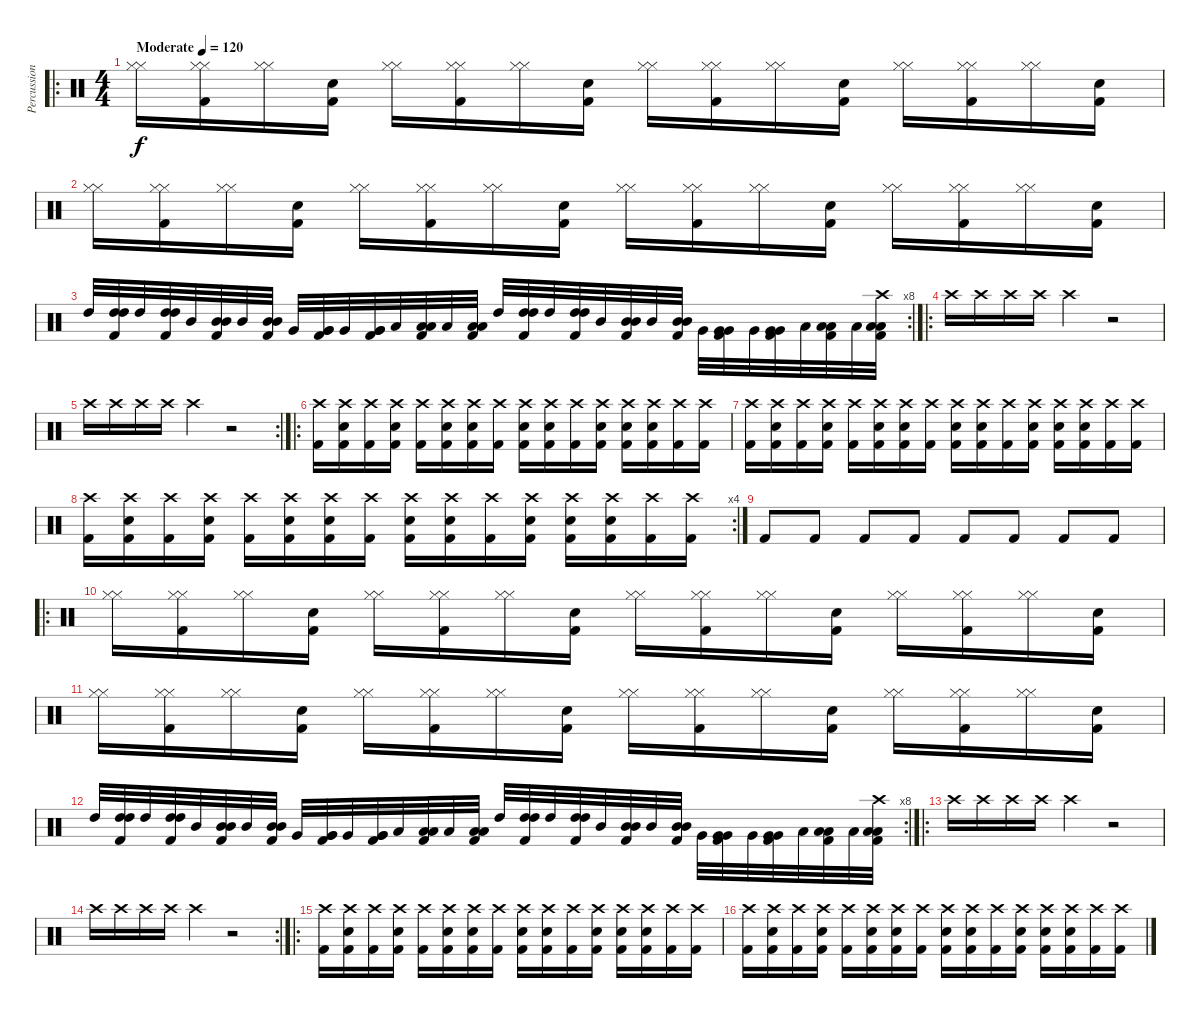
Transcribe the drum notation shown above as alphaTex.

\track ("Percussion" "Percussion") {instrument percussion}
\staff {score}
\articulation defaults
\ro
\ts (4 4)
\tempo (120 "Moderate")
\clef neutral
\ks c
("Hi-Hat (closed)" "Hi-Hat (closed)").16{dy f} ("Hi-Hat (closed)" "Hi-Hat (closed)" "Kick (hit) 2").16 ("Hi-Hat (closed)" "Hi-Hat (closed)").16 ("Snare (hit) 2" "Kick (hit) 2").16 ("Hi-Hat (closed)" "Hi-Hat (closed)").16 ("Hi-Hat (closed)" "Hi-Hat (closed)" "Kick (hit) 2").16 ("Hi-Hat (closed)" "Hi-Hat (closed)").16 ("Snare (hit) 2" "Kick (hit) 2").16 ("Hi-Hat (closed)" "Hi-Hat (closed)").16 ("Hi-Hat (closed)" "Hi-Hat (closed)" "Kick (hit) 2").16 ("Hi-Hat (closed)" "Hi-Hat (closed)").16 ("Snare (hit) 2" "Kick (hit) 2").16 ("Hi-Hat (closed)" "Hi-Hat (closed)").16 ("Hi-Hat (closed)" "Hi-Hat (closed)" "Kick (hit) 2").16 ("Hi-Hat (closed)" "Hi-Hat (closed)").16 ("Snare (hit) 2" "Kick (hit) 2").16 |
("Hi-Hat (closed)" "Hi-Hat (closed)").16 ("Hi-Hat (closed)" "Hi-Hat (closed)" "Kick (hit) 2").16 ("Hi-Hat (closed)" "Hi-Hat (closed)").16 ("Snare (hit) 2" "Kick (hit) 2").16 ("Hi-Hat (closed)" "Hi-Hat (closed)").16 ("Hi-Hat (closed)" "Hi-Hat (closed)" "Kick (hit) 2").16 ("Hi-Hat (closed)" "Hi-Hat (closed)").16 ("Snare (hit) 2" "Kick (hit) 2").16 ("Hi-Hat (closed)" "Hi-Hat (closed)").16 ("Hi-Hat (closed)" "Hi-Hat (closed)" "Kick (hit) 2").16 ("Hi-Hat (closed)" "Hi-Hat (closed)").16 ("Snare (hit) 2" "Kick (hit) 2").16 ("Hi-Hat (closed)" "Hi-Hat (closed)").16 ("Hi-Hat (closed)" "Hi-Hat (closed)" "Kick (hit) 2").16 ("Hi-Hat (closed)" "Hi-Hat (closed)").16 ("Snare (hit) 2" "Kick (hit) 2").16 |
\rc 8 "High Tom (hit)".32
("High Tom (hit)" "High Tom (hit)" "Kick (hit) 2").32 "High Tom (hit)".32 ("High Tom (hit)" "High Tom (hit)" "Kick (hit) 2").32 "Mid Tom (hit)".32 ("Mid Tom (hit)" "Mid Tom (hit)" "Kick (hit) 2").32 "Mid Tom (hit)".32 ("Mid Tom (hit)" "Mid Tom (hit)" "Kick (hit) 2").32 "Very Low Tom (hit)".32 ("Very Low Tom (hit)" "Very Low Tom (hit)" "Kick (hit) 2").32 "Very Low Tom (hit)".32 ("Very Low Tom (hit)" "Very Low Tom (hit)" "Kick (hit) 2").32 "Low Floor Tom (hit)".32 ("Low Floor Tom (hit)" "Low Floor Tom (hit)" "Kick (hit) 2").32 "Low Floor Tom (hit)".32 ("Low Floor Tom (hit)" "Low Floor Tom (hit)" "Kick (hit) 2").32 "High Tom (hit)".32 ("High Tom (hit)" "High Tom (hit)" "Kick (hit) 2").32 "High Tom (hit)".32 ("High Tom (hit)" "High Tom (hit)" "Kick (hit) 2").32 "Mid Tom (hit)".32 ("Mid Tom (hit)" "Mid Tom (hit)" "Kick (hit) 2").32 "Mid Tom (hit)".32 ("Mid Tom (hit)" "Mid Tom (hit)" "Kick (hit) 2").32 "Very Low Tom (hit)".32 ("Very Low Tom (hit)" "Very Low Tom (hit)" "Kick (hit) 2").32 "Very Low Tom (hit)".32 ("Very Low Tom (hit)" "Very Low Tom (hit)" "Kick (hit) 2").32 "Low Floor Tom (hit)".32 ("Low Floor Tom (hit)" "Low Floor Tom (hit)" "Kick (hit) 2").32 "Low Floor Tom (hit)".32 ("Crash high (hit)" "Low Floor Tom (hit)" "Low Floor Tom (hit)" "Kick (hit) 2").32 |
\ro "Crash high (hit)".16 "Crash high (hit)".16 "Crash high (hit)".16 "Crash high (hit)".16 "Crash high (hit)".4
r.2 |
\rc 2 "Crash high (hit)".16 "Crash high (hit)".16 "Crash high (hit)".16 "Crash high (hit)".16 "Crash high (hit)".4
r.2 |
\ro
("Crash high (hit)" "Kick (hit) 2").16 ("Crash high (hit)" "Snare (hit) 2" "Kick (hit) 2").16 ("Crash high (hit)" "Kick (hit) 2").16 ("Crash high (hit)" "Snare (hit) 2" "Kick (hit) 2").16 ("Crash high (hit)" "Kick (hit) 2").16 ("Crash high (hit)" "Snare (hit) 2" "Kick (hit) 2").16 ("Crash high (hit)" "Snare (hit) 2" "Kick (hit) 2").16 ("Crash high (hit)" "Kick (hit) 2").16 ("Crash high (hit)" "Snare (hit) 2" "Kick (hit) 2").16 ("Crash high (hit)" "Snare (hit) 2" "Kick (hit) 2").16 ("Crash high (hit)" "Kick (hit) 2").16 ("Crash high (hit)" "Snare (hit) 2" "Kick (hit) 2").16 ("Crash high (hit)" "Snare (hit) 2" "Kick (hit) 2").16 ("Crash high (hit)" "Snare (hit) 2" "Kick (hit) 2").16 ("Crash high (hit)" "Kick (hit) 2").16 ("Crash high (hit)" "Kick (hit) 2").16 |
("Crash high (hit)" "Kick (hit) 2").16 ("Crash high (hit)" "Snare (hit) 2" "Kick (hit) 2").16 ("Crash high (hit)" "Kick (hit) 2").16 ("Crash high (hit)" "Snare (hit) 2" "Kick (hit) 2").16 ("Crash high (hit)" "Kick (hit) 2").16 ("Crash high (hit)" "Snare (hit) 2" "Kick (hit) 2").16 ("Crash high (hit)" "Snare (hit) 2" "Kick (hit) 2").16 ("Crash high (hit)" "Kick (hit) 2").16 ("Crash high (hit)" "Snare (hit) 2" "Kick (hit) 2").16 ("Crash high (hit)" "Snare (hit) 2" "Kick (hit) 2").16 ("Crash high (hit)" "Kick (hit) 2").16 ("Crash high (hit)" "Snare (hit) 2" "Kick (hit) 2").16 ("Crash high (hit)" "Snare (hit) 2" "Kick (hit) 2").16 ("Crash high (hit)" "Snare (hit) 2" "Kick (hit) 2").16 ("Crash high (hit)" "Kick (hit) 2").16 ("Crash high (hit)" "Kick (hit) 2").16 |
\rc 4
("Crash high (hit)" "Kick (hit) 2").16 ("Crash high (hit)" "Snare (hit) 2" "Kick (hit) 2").16 ("Crash high (hit)" "Kick (hit) 2").16 ("Crash high (hit)" "Snare (hit) 2" "Kick (hit) 2").16 ("Crash high (hit)" "Kick (hit) 2").16 ("Crash high (hit)" "Snare (hit) 2" "Kick (hit) 2").16 ("Crash high (hit)" "Snare (hit) 2" "Kick (hit) 2").16 ("Crash high (hit)" "Kick (hit) 2").16 ("Crash high (hit)" "Snare (hit) 2" "Kick (hit) 2").16 ("Crash high (hit)" "Snare (hit) 2" "Kick (hit) 2").16 ("Crash high (hit)" "Kick (hit) 2").16 ("Crash high (hit)" "Snare (hit) 2" "Kick (hit) 2").16 ("Crash high (hit)" "Snare (hit) 2" "Kick (hit) 2").16 ("Crash high (hit)" "Snare (hit) 2" "Kick (hit) 2").16 ("Crash high (hit)" "Kick (hit) 2").16 ("Crash high (hit)" "Kick (hit) 2").16 |
"Kick (hit) 2".8 "Kick (hit) 2".8 "Kick (hit) 2".8 "Kick (hit) 2".8 "Kick (hit) 2".8 "Kick (hit) 2".8 "Kick (hit) 2".8 "Kick (hit) 2".8 |
\ro
("Hi-Hat (closed)" "Hi-Hat (closed)").16 ("Hi-Hat (closed)" "Hi-Hat (closed)" "Kick (hit) 2").16 ("Hi-Hat (closed)" "Hi-Hat (closed)").16 ("Snare (hit) 2" "Kick (hit) 2").16 ("Hi-Hat (closed)" "Hi-Hat (closed)").16 ("Hi-Hat (closed)" "Hi-Hat (closed)" "Kick (hit) 2").16 ("Hi-Hat (closed)" "Hi-Hat (closed)").16 ("Snare (hit) 2" "Kick (hit) 2").16 ("Hi-Hat (closed)" "Hi-Hat (closed)").16 ("Hi-Hat (closed)" "Hi-Hat (closed)" "Kick (hit) 2").16 ("Hi-Hat (closed)" "Hi-Hat (closed)").16 ("Snare (hit) 2" "Kick (hit) 2").16 ("Hi-Hat (closed)" "Hi-Hat (closed)").16 ("Hi-Hat (closed)" "Hi-Hat (closed)" "Kick (hit) 2").16 ("Hi-Hat (closed)" "Hi-Hat (closed)").16 ("Snare (hit) 2" "Kick (hit) 2").16 |
("Hi-Hat (closed)" "Hi-Hat (closed)").16 ("Hi-Hat (closed)" "Hi-Hat (closed)" "Kick (hit) 2").16 ("Hi-Hat (closed)" "Hi-Hat (closed)").16 ("Snare (hit) 2" "Kick (hit) 2").16 ("Hi-Hat (closed)" "Hi-Hat (closed)").16 ("Hi-Hat (closed)" "Hi-Hat (closed)" "Kick (hit) 2").16 ("Hi-Hat (closed)" "Hi-Hat (closed)").16 ("Snare (hit) 2" "Kick (hit) 2").16 ("Hi-Hat (closed)" "Hi-Hat (closed)").16 ("Hi-Hat (closed)" "Hi-Hat (closed)" "Kick (hit) 2").16 ("Hi-Hat (closed)" "Hi-Hat (closed)").16 ("Snare (hit) 2" "Kick (hit) 2").16 ("Hi-Hat (closed)" "Hi-Hat (closed)").16 ("Hi-Hat (closed)" "Hi-Hat (closed)" "Kick (hit) 2").16 ("Hi-Hat (closed)" "Hi-Hat (closed)").16 ("Snare (hit) 2" "Kick (hit) 2").16 |
\rc 8 "High Tom (hit)".32
("High Tom (hit)" "High Tom (hit)" "Kick (hit) 2").32 "High Tom (hit)".32 ("High Tom (hit)" "High Tom (hit)" "Kick (hit) 2").32 "Mid Tom (hit)".32 ("Mid Tom (hit)" "Mid Tom (hit)" "Kick (hit) 2").32 "Mid Tom (hit)".32 ("Mid Tom (hit)" "Mid Tom (hit)" "Kick (hit) 2").32 "Very Low Tom (hit)".32 ("Very Low Tom (hit)" "Very Low Tom (hit)" "Kick (hit) 2").32 "Very Low Tom (hit)".32 ("Very Low Tom (hit)" "Very Low Tom (hit)" "Kick (hit) 2").32 "Low Floor Tom (hit)".32 ("Low Floor Tom (hit)" "Low Floor Tom (hit)" "Kick (hit) 2").32 "Low Floor Tom (hit)".32 ("Low Floor Tom (hit)" "Low Floor Tom (hit)" "Kick (hit) 2").32 "High Tom (hit)".32 ("High Tom (hit)" "High Tom (hit)" "Kick (hit) 2").32 "High Tom (hit)".32 ("High Tom (hit)" "High Tom (hit)" "Kick (hit) 2").32 "Mid Tom (hit)".32 ("Mid Tom (hit)" "Mid Tom (hit)" "Kick (hit) 2").32 "Mid Tom (hit)".32 ("Mid Tom (hit)" "Mid Tom (hit)" "Kick (hit) 2").32 "Very Low Tom (hit)".32 ("Very Low Tom (hit)" "Very Low Tom (hit)" "Kick (hit) 2").32 "Very Low Tom (hit)".32 ("Very Low Tom (hit)" "Very Low Tom (hit)" "Kick (hit) 2").32 "Low Floor Tom (hit)".32 ("Low Floor Tom (hit)" "Low Floor Tom (hit)" "Kick (hit) 2").32 "Low Floor Tom (hit)".32 ("Crash high (hit)" "Low Floor Tom (hit)" "Low Floor Tom (hit)" "Kick (hit) 2").32 |
\ro "Crash high (hit)".16 "Crash high (hit)".16 "Crash high (hit)".16 "Crash high (hit)".16 "Crash high (hit)".4
r.2 |
\rc 2 "Crash high (hit)".16 "Crash high (hit)".16 "Crash high (hit)".16 "Crash high (hit)".16 "Crash high (hit)".4
r.2 |
\ro
("Crash high (hit)" "Kick (hit) 2").16 ("Crash high (hit)" "Snare (hit) 2" "Kick (hit) 2").16 ("Crash high (hit)" "Kick (hit) 2").16 ("Crash high (hit)" "Snare (hit) 2" "Kick (hit) 2").16 ("Crash high (hit)" "Kick (hit) 2").16 ("Crash high (hit)" "Snare (hit) 2" "Kick (hit) 2").16 ("Crash high (hit)" "Snare (hit) 2" "Kick (hit) 2").16 ("Crash high (hit)" "Kick (hit) 2").16 ("Crash high (hit)" "Snare (hit) 2" "Kick (hit) 2").16 ("Crash high (hit)" "Snare (hit) 2" "Kick (hit) 2").16 ("Crash high (hit)" "Kick (hit) 2").16 ("Crash high (hit)" "Snare (hit) 2" "Kick (hit) 2").16 ("Crash high (hit)" "Snare (hit) 2" "Kick (hit) 2").16 ("Crash high (hit)" "Snare (hit) 2" "Kick (hit) 2").16 ("Crash high (hit)" "Kick (hit) 2").16 ("Crash high (hit)" "Kick (hit) 2").16 |
("Crash high (hit)" "Kick (hit) 2").16 ("Crash high (hit)" "Snare (hit) 2" "Kick (hit) 2").16 ("Crash high (hit)" "Kick (hit) 2").16 ("Crash high (hit)" "Snare (hit) 2" "Kick (hit) 2").16 ("Crash high (hit)" "Kick (hit) 2").16 ("Crash high (hit)" "Snare (hit) 2" "Kick (hit) 2").16 ("Crash high (hit)" "Snare (hit) 2" "Kick (hit) 2").16 ("Crash high (hit)" "Kick (hit) 2").16 ("Crash high (hit)" "Snare (hit) 2" "Kick (hit) 2").16 ("Crash high (hit)" "Snare (hit) 2" "Kick (hit) 2").16 ("Crash high (hit)" "Kick (hit) 2").16 ("Crash high (hit)" "Snare (hit) 2" "Kick (hit) 2").16 ("Crash high (hit)" "Snare (hit) 2" "Kick (hit) 2").16 ("Crash high (hit)" "Snare (hit) 2" "Kick (hit) 2").16 ("Crash high (hit)" "Kick (hit) 2").16 ("Crash high (hit)" "Kick (hit) 2").16
